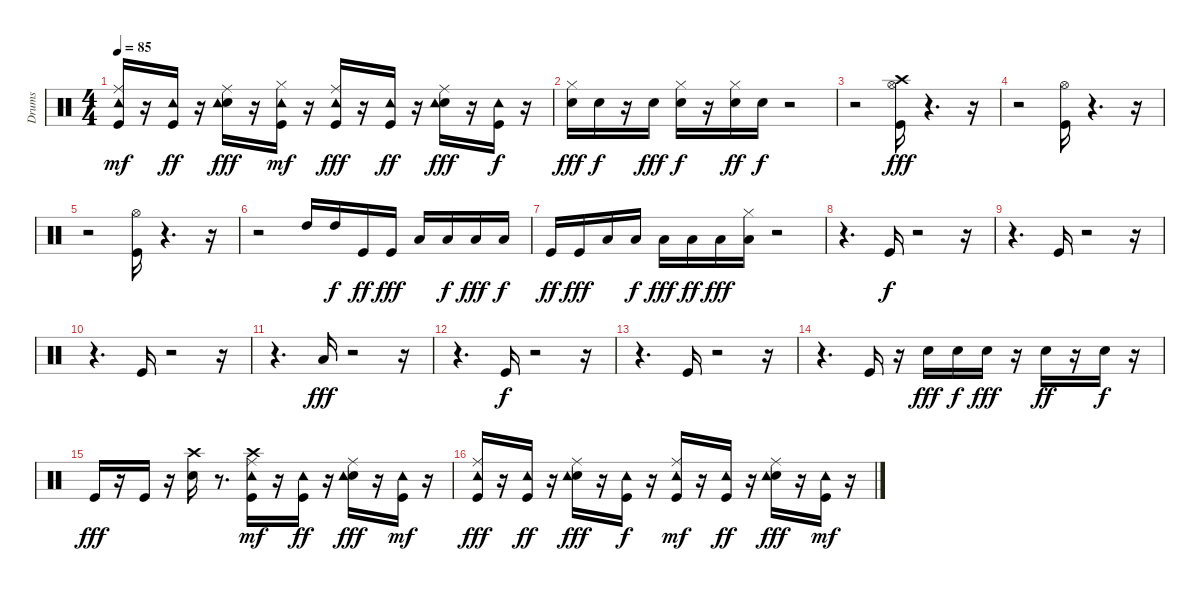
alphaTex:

\track ("Drums    " "Drums    ") {instrument percussion}
\staff {score}
\articulation defaults
\ts (4 4)
\tempo 85
\clef neutral
\ks c
("Kick (hit)" "Ride (middle)" "Tambourine (hit)").16{dy mf} r.16 ("Kick (hit)" "Tambourine (hit)").16{dy ff} r.16 ("Snare (hit) 2" "Ride (middle)" "Tambourine (hit)").16{dy fff} r.16 ("Kick (hit)" "Hi-Hat (closed)" "Tambourine (hit)").16{dy mf} r.16 ("Kick (hit)" "Ride (middle)" "Tambourine (hit)").16{dy fff} r.16 ("Kick (hit)" "Tambourine (hit)").16{dy ff} r.16 ("Snare (hit) 2" "Ride (middle)" "Tambourine (hit)").16{dy fff} r.16 ("Kick (hit)" "Tambourine (hit)").16{dy f} r.16 |
("Snare (hit) 2" "Hi-Hat (closed)").16{dy fff} "Snare (hit) 2".16{dy f} r.16 "Snare (hit) 2".16{dy fff} ("Snare (hit) 2" "Hi-Hat (closed)").16{dy f} r.16 ("Snare (hit) 2" "Hi-Hat (closed)").16{dy ff} "Snare (hit) 2".16{dy f} r.2 |
r.2 ("Kick (hit)" "Hi-Hat (open)" "Crash high (hit)").16{dy fff} r.4{d} r.16 |
r.2 ("Kick (hit)" "Hi-Hat (open)").16 r.4{d} r.16 |
r.2 ("Kick (hit)" "Hi-Hat (open)").16 r.4{d} r.16 |
r.2 "High Tom (hit)".16 "High Tom (hit)".16{dy f} "Kick (hit)".16{dy ff} "Kick (hit)".16{dy fff} "Low Tom (hit)".16 "Low Tom (hit)".16{dy f} "Low Tom (hit)".16{dy fff} "Low Tom (hit)".16{dy f} |
"Kick (hit)".16{dy ff} "Kick (hit)".16{dy fff} "Low Floor Tom (hit)".16 "Low Floor Tom (hit)".16{dy f} "Low Floor Tom (hit)".16{dy fff} "Low Floor Tom (hit)".16{dy ff} "Low Floor Tom (hit)".16{dy fff} ("Hi-Hat (closed)" "Low Floor Tom (hit)").16 r.2 |
r.4{d} "Kick (hit)".16{dy f} r.2 r.16 |
r.4{d} "Kick (hit)".16 r.2 r.16 |
r.4{d} "Kick (hit)".16 r.2 r.16 |
r.4{d} "Low Floor Tom (hit)".16{dy fff} r.2 r.16 |
r.4{d} "Kick (hit)".16{dy f} r.2 r.16 |
r.4{d} "Kick (hit)".16 r.2 r.16 |
r.4{d} "Kick (hit)".16 r.16 "Snare (hit) 2".16{dy fff} "Snare (hit) 2".16{dy f} "Snare (hit) 2".16{dy fff} r.16 "Snare (hit) 2".16{dy ff} r.16 "Snare (hit) 2".16{dy f} r.16 |
"Kick (hit)".16{dy fff} r.16 "Kick (hit)".16 r.16 ("Snare (hit) 2" "Crash high (hit)").16 r.8{d} ("Kick (hit)" "Ride (middle)" "Crash high (hit)" "Tambourine (hit)").16{dy mf} r.16 ("Kick (hit)" "Tambourine (hit)").16{dy ff} r.16 ("Snare (hit) 2" "Ride (middle)" "Tambourine (hit)").16{dy fff} r.16 ("Kick (hit)" "Tambourine (hit)").16{dy mf} r.16 |
("Kick (hit)" "Ride (middle)" "Tambourine (hit)").16{dy fff} r.16 ("Kick (hit)" "Tambourine (hit)").16{dy ff} r.16 ("Snare (hit) 2" "Ride (middle)" "Tambourine (hit)").16{dy fff} r.16 ("Kick (hit)" "Tambourine (hit)").16{dy f} r.16 ("Kick (hit)" "Ride (middle)" "Tambourine (hit)").16{dy mf} r.16 ("Kick (hit)" "Tambourine (hit)").16{dy ff} r.16 ("Snare (hit) 2" "Ride (middle)" "Tambourine (hit)").16{dy fff} r.16 ("Kick (hit)" "Tambourine (hit)").16{dy mf} r.16
